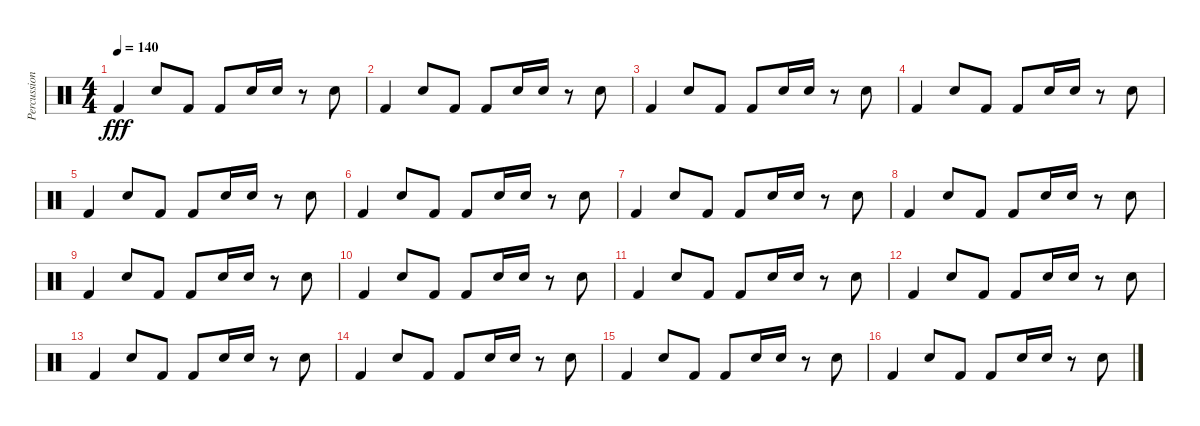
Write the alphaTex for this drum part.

\track ("Percussion" "Percussion") {instrument percussion}
\staff {score}
\articulation defaults
\ts (4 4)
\tempo 140
\clef neutral
\ks c "Kick (hit) 2".4{dy fff} "Snare (hit) 2".8 "Kick (hit) 2".8 "Kick (hit) 2".8 "Snare (hit) 2".16 "Snare (hit) 2".16
r.8 "Snare (hit) 2".8 |
"Kick (hit) 2".4 "Snare (hit) 2".8 "Kick (hit) 2".8 "Kick (hit) 2".8 "Snare (hit) 2".16 "Snare (hit) 2".16 r.8 "Snare (hit) 2".8 |
"Kick (hit) 2".4 "Snare (hit) 2".8 "Kick (hit) 2".8 "Kick (hit) 2".8 "Snare (hit) 2".16 "Snare (hit) 2".16 r.8 "Snare (hit) 2".8 |
"Kick (hit) 2".4 "Snare (hit) 2".8 "Kick (hit) 2".8 "Kick (hit) 2".8 "Snare (hit) 2".16 "Snare (hit) 2".16 r.8 "Snare (hit) 2".8 |
"Kick (hit) 2".4 "Snare (hit) 2".8 "Kick (hit) 2".8 "Kick (hit) 2".8 "Snare (hit) 2".16 "Snare (hit) 2".16 r.8 "Snare (hit) 2".8 |
"Kick (hit) 2".4 "Snare (hit) 2".8 "Kick (hit) 2".8 "Kick (hit) 2".8 "Snare (hit) 2".16 "Snare (hit) 2".16 r.8 "Snare (hit) 2".8 |
"Kick (hit) 2".4 "Snare (hit) 2".8 "Kick (hit) 2".8 "Kick (hit) 2".8 "Snare (hit) 2".16 "Snare (hit) 2".16 r.8 "Snare (hit) 2".8 |
"Kick (hit) 2".4 "Snare (hit) 2".8 "Kick (hit) 2".8 "Kick (hit) 2".8 "Snare (hit) 2".16 "Snare (hit) 2".16 r.8 "Snare (hit) 2".8 |
"Kick (hit) 2".4 "Snare (hit) 2".8 "Kick (hit) 2".8 "Kick (hit) 2".8 "Snare (hit) 2".16 "Snare (hit) 2".16 r.8 "Snare (hit) 2".8 |
"Kick (hit) 2".4 "Snare (hit) 2".8 "Kick (hit) 2".8 "Kick (hit) 2".8 "Snare (hit) 2".16 "Snare (hit) 2".16 r.8 "Snare (hit) 2".8 |
"Kick (hit) 2".4 "Snare (hit) 2".8 "Kick (hit) 2".8 "Kick (hit) 2".8 "Snare (hit) 2".16 "Snare (hit) 2".16 r.8 "Snare (hit) 2".8 |
"Kick (hit) 2".4 "Snare (hit) 2".8 "Kick (hit) 2".8 "Kick (hit) 2".8 "Snare (hit) 2".16 "Snare (hit) 2".16 r.8 "Snare (hit) 2".8 |
"Kick (hit) 2".4 "Snare (hit) 2".8 "Kick (hit) 2".8 "Kick (hit) 2".8 "Snare (hit) 2".16 "Snare (hit) 2".16 r.8 "Snare (hit) 2".8 |
"Kick (hit) 2".4 "Snare (hit) 2".8 "Kick (hit) 2".8 "Kick (hit) 2".8 "Snare (hit) 2".16 "Snare (hit) 2".16 r.8 "Snare (hit) 2".8 |
"Kick (hit) 2".4 "Snare (hit) 2".8 "Kick (hit) 2".8 "Kick (hit) 2".8 "Snare (hit) 2".16 "Snare (hit) 2".16 r.8 "Snare (hit) 2".8 |
"Kick (hit) 2".4 "Snare (hit) 2".8 "Kick (hit) 2".8 "Kick (hit) 2".8 "Snare (hit) 2".16 "Snare (hit) 2".16 r.8 "Snare (hit) 2".8
